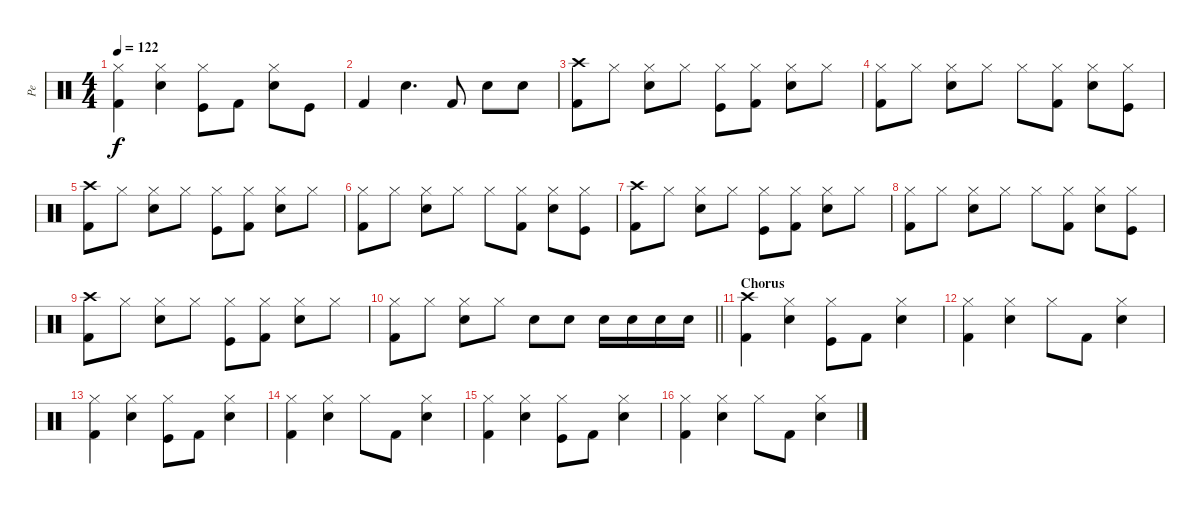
\track ("Pe" "Pe") {instrument percussion}
\staff {score}
\articulation defaults
\ts (4 4)
\tempo 122
\clef neutral
\ks c
("Kick (hit) 2" "Hi-Hat (closed)").4{dy f} ("Electric Snare (hit)" "Hi-Hat (closed)").4 ("Kick (hit)" "Hi-Hat (closed)").8 "Kick (hit) 2".8 ("Electric Snare (hit)" "Hi-Hat (closed)").8 "Kick (hit)".8 |
"Kick (hit) 2".4 "Electric Snare (hit)".4{d} "Kick (hit) 2".8 "Electric Snare (hit)".8 "Electric Snare (hit)".8 |
("Kick (hit) 2" "Crash high (hit)").8 "Hi-Hat (closed)".8 ("Electric Snare (hit)" "Hi-Hat (closed)").8 "Hi-Hat (closed)".8 ("Kick (hit)" "Hi-Hat (closed)").8 ("Kick (hit) 2" "Hi-Hat (closed)").8 ("Electric Snare (hit)" "Hi-Hat (closed)").8 "Hi-Hat (closed)".8 |
("Kick (hit) 2" "Hi-Hat (closed)").8 "Hi-Hat (closed)".8 ("Electric Snare (hit)" "Hi-Hat (closed)").8 "Hi-Hat (closed)".8 "Hi-Hat (closed)".8 ("Kick (hit) 2" "Hi-Hat (closed)").8 ("Electric Snare (hit)" "Hi-Hat (closed)").8 ("Kick (hit)" "Hi-Hat (closed)").8 |
("Kick (hit) 2" "Crash high (hit)").8 "Hi-Hat (closed)".8 ("Electric Snare (hit)" "Hi-Hat (closed)").8 "Hi-Hat (closed)".8 ("Kick (hit)" "Hi-Hat (closed)").8 ("Kick (hit) 2" "Hi-Hat (closed)").8 ("Electric Snare (hit)" "Hi-Hat (closed)").8 "Hi-Hat (closed)".8 |
("Kick (hit) 2" "Hi-Hat (closed)").8 "Hi-Hat (closed)".8 ("Electric Snare (hit)" "Hi-Hat (closed)").8 "Hi-Hat (closed)".8 "Hi-Hat (closed)".8 ("Kick (hit) 2" "Hi-Hat (closed)").8 ("Electric Snare (hit)" "Hi-Hat (closed)").8 ("Kick (hit)" "Hi-Hat (closed)").8 |
("Kick (hit) 2" "Crash high (hit)").8 "Hi-Hat (closed)".8 ("Electric Snare (hit)" "Hi-Hat (closed)").8 "Hi-Hat (closed)".8 ("Kick (hit)" "Hi-Hat (closed)").8 ("Kick (hit) 2" "Hi-Hat (closed)").8 ("Electric Snare (hit)" "Hi-Hat (closed)").8 "Hi-Hat (closed)".8 |
("Kick (hit) 2" "Hi-Hat (closed)").8 "Hi-Hat (closed)".8 ("Electric Snare (hit)" "Hi-Hat (closed)").8 "Hi-Hat (closed)".8 "Hi-Hat (closed)".8 ("Kick (hit) 2" "Hi-Hat (closed)").8 ("Electric Snare (hit)" "Hi-Hat (closed)").8 ("Kick (hit)" "Hi-Hat (closed)").8 |
("Kick (hit) 2" "Crash high (hit)").8 "Hi-Hat (closed)".8 ("Electric Snare (hit)" "Hi-Hat (closed)").8 "Hi-Hat (closed)".8 ("Kick (hit)" "Hi-Hat (closed)").8 ("Kick (hit) 2" "Hi-Hat (closed)").8 ("Electric Snare (hit)" "Hi-Hat (closed)").8 "Hi-Hat (closed)".8 |
\barLineRight lightlight
("Kick (hit) 2" "Hi-Hat (closed)").8 "Hi-Hat (closed)".8 ("Electric Snare (hit)" "Hi-Hat (closed)").8 "Hi-Hat (closed)".8 "Electric Snare (hit)".8 "Electric Snare (hit)".8 "Electric Snare (hit)".16 "Electric Snare (hit)".16 "Electric Snare (hit)".16 "Electric Snare (hit)".16 |
\section ("" "Chorus")
("Kick (hit) 2" "Crash high (hit)").4 ("Electric Snare (hit)" "Hi-Hat (closed)").4 ("Kick (hit)" "Hi-Hat (closed)").8 "Kick (hit) 2".8 ("Electric Snare (hit)" "Hi-Hat (closed)").4 |
("Kick (hit) 2" "Hi-Hat (closed)").4 ("Electric Snare (hit)" "Hi-Hat (closed)").4 "Hi-Hat (closed)".8 "Kick (hit) 2".8 ("Electric Snare (hit)" "Hi-Hat (closed)").4 |
("Kick (hit) 2" "Hi-Hat (closed)").4 ("Electric Snare (hit)" "Hi-Hat (closed)").4 ("Kick (hit)" "Hi-Hat (closed)").8 "Kick (hit) 2".8 ("Electric Snare (hit)" "Hi-Hat (closed)").4 |
("Kick (hit) 2" "Hi-Hat (closed)").4 ("Electric Snare (hit)" "Hi-Hat (closed)").4 "Hi-Hat (closed)".8 "Kick (hit) 2".8 ("Electric Snare (hit)" "Hi-Hat (closed)").4 |
("Kick (hit) 2" "Hi-Hat (closed)").4 ("Electric Snare (hit)" "Hi-Hat (closed)").4 ("Kick (hit)" "Hi-Hat (closed)").8 "Kick (hit) 2".8 ("Electric Snare (hit)" "Hi-Hat (closed)").4 |
("Kick (hit) 2" "Hi-Hat (closed)").4 ("Electric Snare (hit)" "Hi-Hat (closed)").4 "Hi-Hat (closed)".8 "Kick (hit) 2".8 ("Electric Snare (hit)" "Hi-Hat (closed)").4
